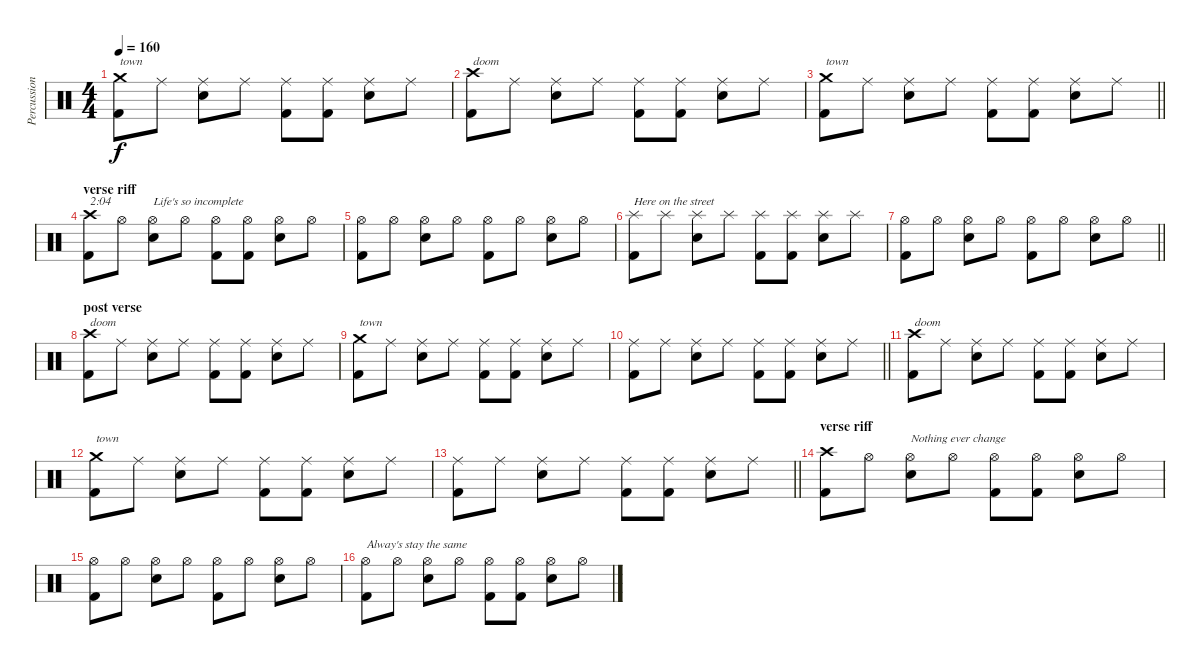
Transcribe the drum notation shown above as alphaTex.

\track ("Percussion 2 var" "Percussion") {mute instrument percussion}
\staff {score}
\articulation defaults
\ts (4 4)
\tempo 160
\clef neutral
\ks c
("Crash medium (hit)" "Kick (hit) 2").8{txt "town" dy f} "Ride (middle)".8 ("Ride (middle)" "Snare (hit) 2").8 "Ride (middle)".8 ("Ride (middle)" "Kick (hit) 2").8 ("Ride (middle)" "Kick (hit) 2").8 ("Ride (middle)" "Snare (hit) 2").8 "Ride (middle)".8 |
("Crash high (hit)" "Kick (hit) 2").8{txt "doom"} "Ride (middle)".8 ("Ride (middle)" "Snare (hit) 2").8 "Ride (middle)".8 ("Ride (middle)" "Kick (hit) 2").8 ("Ride (middle)" "Kick (hit) 2").8 ("Ride (middle)" "Snare (hit) 2").8 "Ride (middle)".8 |
\barLineRight lightlight
("Crash medium (hit)" "Kick (hit) 2").8{txt "town"} "Ride (middle)".8 ("Ride (middle)" "Snare (hit) 2").8 "Ride (middle)".8 ("Ride (middle)" "Kick (hit) 2").8 ("Ride (middle)" "Kick (hit) 2").8 ("Ride (middle)" "Snare (hit) 2").8 "Ride (middle)".8 |
\section ("" "verse riff")
("Crash high (hit)" "Kick (hit) 2").8{txt "2:04"} "Hi-Hat (open)".8 ("Hi-Hat (open)" "Snare (hit) 2").8{txt "Life's so incomplete"} "Hi-Hat (open)".8 ("Hi-Hat (open)" "Kick (hit) 2").8 ("Hi-Hat (open)" "Kick (hit) 2").8 ("Hi-Hat (open)" "Snare (hit) 2").8 "Hi-Hat (open)".8 |
("Hi-Hat (open)" "Kick (hit) 2").8 "Hi-Hat (open)".8 ("Hi-Hat (open)" "Snare (hit) 2").8 "Hi-Hat (open)".8 ("Hi-Hat (open)" "Kick (hit) 2").8 "Hi-Hat (open)".8 ("Hi-Hat (open)" "Snare (hit) 2").8 "Hi-Hat (open)".8 |
("Splash (hit)" "Kick (hit) 2").8{txt "Here on the street"} "Splash (hit)".8 ("Splash (hit)" "Snare (hit) 2").8 "Splash (hit)".8 ("Splash (hit)" "Kick (hit) 2").8 ("Splash (hit)" "Kick (hit) 2").8 ("Splash (hit)" "Snare (hit) 2").8 "Splash (hit)".8 |
\barLineRight lightlight
("Hi-Hat (open)" "Kick (hit) 2").8 "Hi-Hat (open)".8 ("Hi-Hat (open)" "Snare (hit) 2").8 "Hi-Hat (open)".8 ("Hi-Hat (open)" "Kick (hit) 2").8 "Hi-Hat (open)".8 ("Hi-Hat (open)" "Snare (hit) 2").8 "Hi-Hat (open)".8 |
\section ("" "post verse")
("Crash high (hit)" "Kick (hit) 2").8{txt "doom"} "Ride (middle)".8 ("Ride (middle)" "Snare (hit) 2").8 "Ride (middle)".8 ("Ride (middle)" "Kick (hit) 2").8 ("Ride (middle)" "Kick (hit) 2").8 ("Ride (middle)" "Snare (hit) 2").8 "Ride (middle)".8 |
("Crash medium (hit)" "Kick (hit) 2").8{txt "town"} "Ride (middle)".8 ("Ride (middle)" "Snare (hit) 2").8 "Ride (middle)".8 ("Ride (middle)" "Kick (hit) 2").8 ("Ride (middle)" "Kick (hit) 2").8 ("Ride (middle)" "Snare (hit) 2").8 "Ride (middle)".8 |
\barLineRight lightlight
("Ride (middle)" "Kick (hit) 2").8 "Ride (middle)".8 ("Ride (middle)" "Snare (hit) 2").8 "Ride (middle)".8 ("Ride (middle)" "Kick (hit) 2").8 ("Ride (middle)" "Kick (hit) 2").8 ("Ride (middle)" "Snare (hit) 2").8 "Ride (middle)".8 |
("Crash high (hit)" "Kick (hit) 2").8{txt "doom"} "Ride (middle)".8 ("Ride (middle)" "Snare (hit) 2").8 "Ride (middle)".8 ("Ride (middle)" "Kick (hit) 2").8 ("Ride (middle)" "Kick (hit) 2").8 ("Ride (middle)" "Snare (hit) 2").8 "Ride (middle)".8 |
("Crash medium (hit)" "Kick (hit) 2").8{txt "town"} "Ride (middle)".8 ("Ride (middle)" "Snare (hit) 2").8 "Ride (middle)".8 ("Ride (middle)" "Kick (hit) 2").8 ("Ride (middle)" "Kick (hit) 2").8 ("Ride (middle)" "Snare (hit) 2").8 "Ride (middle)".8 |
\barLineRight lightlight
("Ride (middle)" "Kick (hit) 2").8 "Ride (middle)".8 ("Ride (middle)" "Snare (hit) 2").8 "Ride (middle)".8 ("Ride (middle)" "Kick (hit) 2").8 ("Ride (middle)" "Kick (hit) 2").8 ("Ride (middle)" "Snare (hit) 2").8 "Ride (middle)".8 |
\section ("" "verse riff")
("Crash high (hit)" "Kick (hit) 2").8 "Hi-Hat (open)".8 ("Hi-Hat (open)" "Snare (hit) 2").8{txt "Nothing ever change"} "Hi-Hat (open)".8 ("Hi-Hat (open)" "Kick (hit) 2").8 ("Hi-Hat (open)" "Kick (hit) 2").8 ("Hi-Hat (open)" "Snare (hit) 2").8 "Hi-Hat (open)".8 |
("Hi-Hat (open)" "Kick (hit) 2").8 "Hi-Hat (open)".8 ("Hi-Hat (open)" "Snare (hit) 2").8 "Hi-Hat (open)".8 ("Hi-Hat (open)" "Kick (hit) 2").8 "Hi-Hat (open)".8 ("Hi-Hat (open)" "Snare (hit) 2").8 "Hi-Hat (open)".8 |
("Hi-Hat (open)" "Kick (hit) 2").8{txt "Alway's stay the same"} "Hi-Hat (open)".8 ("Hi-Hat (open)" "Snare (hit) 2").8 "Hi-Hat (open)".8 ("Hi-Hat (open)" "Kick (hit) 2").8 ("Hi-Hat (open)" "Kick (hit) 2").8 ("Hi-Hat (open)" "Snare (hit) 2").8 "Hi-Hat (open)".8
